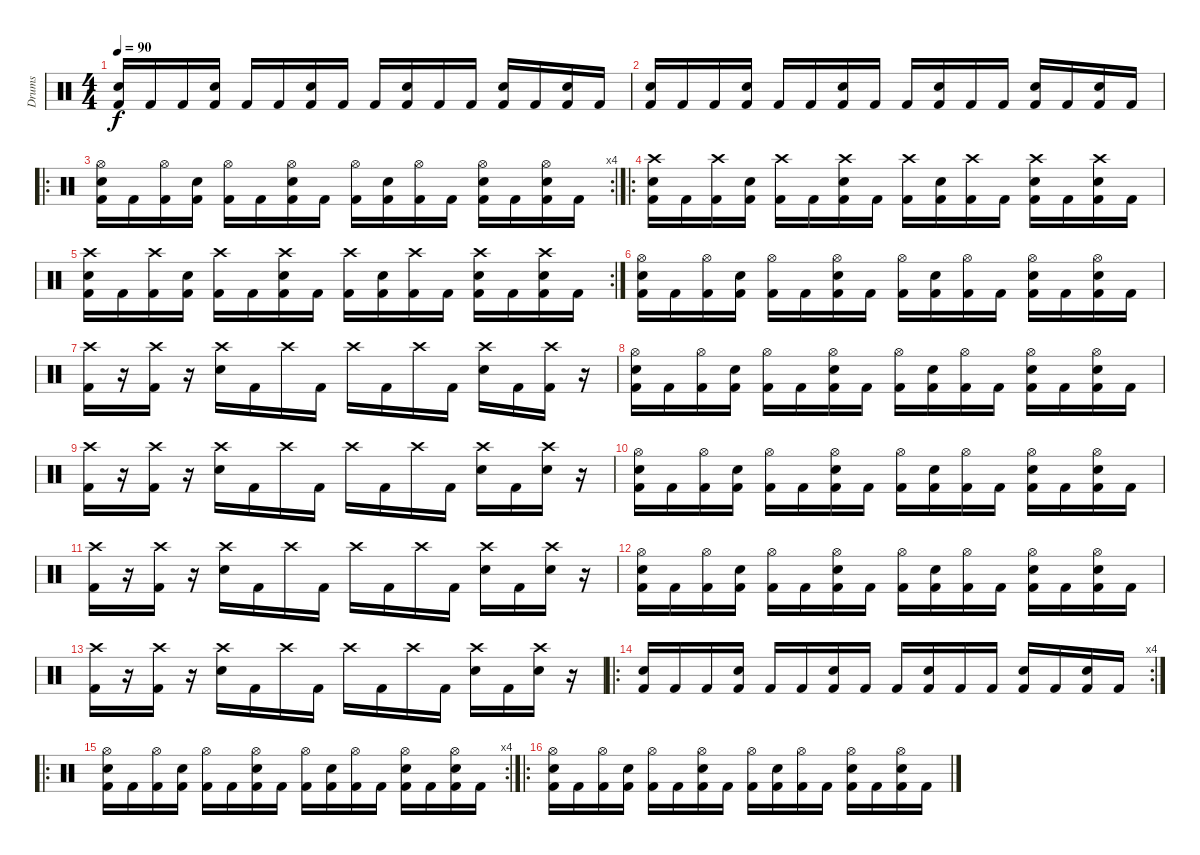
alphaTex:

\track ("Drums" "Drums") {instrument percussion}
\staff {score}
\articulation defaults
\ts (4 4)
\tempo 90
\clef neutral
\ks c
("Kick (hit) 2" "Snare (hit) 2").16{dy f} "Kick (hit) 2".16 "Kick (hit) 2".16 ("Kick (hit) 2" "Snare (hit) 2").16 "Kick (hit) 2".16 "Kick (hit) 2".16 ("Kick (hit) 2" "Snare (hit) 2").16 "Kick (hit) 2".16 "Kick (hit) 2".16 ("Kick (hit) 2" "Snare (hit) 2").16 "Kick (hit) 2".16 "Kick (hit) 2".16 ("Kick (hit) 2" "Snare (hit) 2").16 "Kick (hit) 2".16 ("Kick (hit) 2" "Snare (hit) 2").16 "Kick (hit) 2".16 |
("Kick (hit) 2" "Snare (hit) 2").16 "Kick (hit) 2".16 "Kick (hit) 2".16 ("Kick (hit) 2" "Snare (hit) 2").16 "Kick (hit) 2".16 "Kick (hit) 2".16 ("Kick (hit) 2" "Snare (hit) 2").16 "Kick (hit) 2".16 "Kick (hit) 2".16 ("Kick (hit) 2" "Snare (hit) 2").16 "Kick (hit) 2".16 "Kick (hit) 2".16 ("Kick (hit) 2" "Snare (hit) 2").16 "Kick (hit) 2".16 ("Kick (hit) 2" "Snare (hit) 2").16 "Kick (hit) 2".16 |
\ro
\rc 4
("Kick (hit) 2" "Snare (hit) 2" "Hi-Hat (open)").16 "Kick (hit) 2".16 ("Kick (hit) 2" "Hi-Hat (open)").16 ("Kick (hit) 2" "Snare (hit) 2").16 ("Kick (hit) 2" "Hi-Hat (open)").16 "Kick (hit) 2".16 ("Kick (hit) 2" "Snare (hit) 2" "Hi-Hat (open)").16 "Kick (hit) 2".16 ("Kick (hit) 2" "Hi-Hat (open)").16 ("Kick (hit) 2" "Snare (hit) 2").16 ("Kick (hit) 2" "Hi-Hat (open)").16 "Kick (hit) 2".16 ("Kick (hit) 2" "Snare (hit) 2" "Hi-Hat (open)").16 "Kick (hit) 2".16 ("Kick (hit) 2" "Snare (hit) 2" "Hi-Hat (open)").16 "Kick (hit) 2".16 |
\ro
("Kick (hit) 2" "Snare (hit) 2" "Crash high (hit)").16 "Kick (hit) 2".16 ("Kick (hit) 2" "Crash high (hit)").16 ("Kick (hit) 2" "Snare (hit) 2").16 ("Kick (hit) 2" "Crash high (hit)").16 "Kick (hit) 2".16 ("Kick (hit) 2" "Snare (hit) 2" "Crash high (hit)").16 "Kick (hit) 2".16 ("Kick (hit) 2" "Crash high (hit)").16 ("Kick (hit) 2" "Snare (hit) 2").16 ("Kick (hit) 2" "Crash high (hit)").16 "Kick (hit) 2".16 ("Kick (hit) 2" "Snare (hit) 2" "Crash high (hit)").16 "Kick (hit) 2".16 ("Kick (hit) 2" "Snare (hit) 2" "Crash high (hit)").16 "Kick (hit) 2".16 |
\rc 2
("Kick (hit) 2" "Snare (hit) 2" "Crash high (hit)").16 "Kick (hit) 2".16 ("Kick (hit) 2" "Crash high (hit)").16 ("Kick (hit) 2" "Snare (hit) 2").16 ("Kick (hit) 2" "Crash high (hit)").16 "Kick (hit) 2".16 ("Kick (hit) 2" "Snare (hit) 2" "Crash high (hit)").16 "Kick (hit) 2".16 ("Kick (hit) 2" "Crash high (hit)").16 ("Kick (hit) 2" "Snare (hit) 2").16 ("Kick (hit) 2" "Crash high (hit)").16 "Kick (hit) 2".16 ("Kick (hit) 2" "Snare (hit) 2" "Crash high (hit)").16 "Kick (hit) 2".16 ("Kick (hit) 2" "Snare (hit) 2" "Crash high (hit)").16 "Kick (hit) 2".16 |
("Kick (hit) 2" "Snare (hit) 2" "Hi-Hat (open)").16 "Kick (hit) 2".16 ("Kick (hit) 2" "Hi-Hat (open)").16 ("Kick (hit) 2" "Snare (hit) 2").16 ("Kick (hit) 2" "Hi-Hat (open)").16 "Kick (hit) 2".16 ("Kick (hit) 2" "Snare (hit) 2" "Hi-Hat (open)").16 "Kick (hit) 2".16 ("Kick (hit) 2" "Hi-Hat (open)").16 ("Kick (hit) 2" "Snare (hit) 2").16 ("Kick (hit) 2" "Hi-Hat (open)").16 "Kick (hit) 2".16 ("Kick (hit) 2" "Snare (hit) 2" "Hi-Hat (open)").16 "Kick (hit) 2".16 ("Kick (hit) 2" "Snare (hit) 2" "Hi-Hat (open)").16 "Kick (hit) 2".16 |
("Kick (hit) 2" "Crash high (hit)").16 r.16 ("Kick (hit) 2" "Crash high (hit)").16 r.16 ("Snare (hit) 2" "Crash high (hit)").16 "Kick (hit) 2".16 "Crash high (hit)".16 "Kick (hit) 2".16 "Crash high (hit)".16 "Kick (hit) 2".16 "Crash high (hit)".16 "Kick (hit) 2".16 ("Snare (hit) 2" "Crash high (hit)").16 "Kick (hit) 2".16 ("Kick (hit) 2" "Crash high (hit)").16 r.16 |
("Kick (hit) 2" "Snare (hit) 2" "Hi-Hat (open)").16 "Kick (hit) 2".16 ("Kick (hit) 2" "Hi-Hat (open)").16 ("Kick (hit) 2" "Snare (hit) 2").16 ("Kick (hit) 2" "Hi-Hat (open)").16 "Kick (hit) 2".16 ("Kick (hit) 2" "Snare (hit) 2" "Hi-Hat (open)").16 "Kick (hit) 2".16 ("Kick (hit) 2" "Hi-Hat (open)").16 ("Kick (hit) 2" "Snare (hit) 2").16 ("Kick (hit) 2" "Hi-Hat (open)").16 "Kick (hit) 2".16 ("Kick (hit) 2" "Snare (hit) 2" "Hi-Hat (open)").16 "Kick (hit) 2".16 ("Kick (hit) 2" "Snare (hit) 2" "Hi-Hat (open)").16 "Kick (hit) 2".16 |
("Kick (hit) 2" "Crash high (hit)").16 r.16 ("Kick (hit) 2" "Crash high (hit)").16 r.16 ("Snare (hit) 2" "Crash high (hit)").16 "Kick (hit) 2".16 "Crash high (hit)".16 "Kick (hit) 2".16 "Crash high (hit)".16 "Kick (hit) 2".16 "Crash high (hit)".16 "Kick (hit) 2".16 ("Snare (hit) 2" "Crash high (hit)").16 "Kick (hit) 2".16 ("Snare (hit) 2" "Crash high (hit)").16 r.16 |
("Kick (hit) 2" "Snare (hit) 2" "Hi-Hat (open)").16 "Kick (hit) 2".16 ("Kick (hit) 2" "Hi-Hat (open)").16 ("Kick (hit) 2" "Snare (hit) 2").16 ("Kick (hit) 2" "Hi-Hat (open)").16 "Kick (hit) 2".16 ("Kick (hit) 2" "Snare (hit) 2" "Hi-Hat (open)").16 "Kick (hit) 2".16 ("Kick (hit) 2" "Hi-Hat (open)").16 ("Kick (hit) 2" "Snare (hit) 2").16 ("Kick (hit) 2" "Hi-Hat (open)").16 "Kick (hit) 2".16 ("Kick (hit) 2" "Snare (hit) 2" "Hi-Hat (open)").16 "Kick (hit) 2".16 ("Kick (hit) 2" "Snare (hit) 2" "Hi-Hat (open)").16 "Kick (hit) 2".16 |
("Kick (hit) 2" "Crash high (hit)").16 r.16 ("Kick (hit) 2" "Crash high (hit)").16 r.16 ("Snare (hit) 2" "Crash high (hit)").16 "Kick (hit) 2".16 "Crash high (hit)".16 "Kick (hit) 2".16 "Crash high (hit)".16 "Kick (hit) 2".16 "Crash high (hit)".16 "Kick (hit) 2".16 ("Snare (hit) 2" "Crash high (hit)").16 "Kick (hit) 2".16 ("Snare (hit) 2" "Crash high (hit)").16 r.16 |
("Kick (hit) 2" "Snare (hit) 2" "Hi-Hat (open)").16 "Kick (hit) 2".16 ("Kick (hit) 2" "Hi-Hat (open)").16 ("Kick (hit) 2" "Snare (hit) 2").16 ("Kick (hit) 2" "Hi-Hat (open)").16 "Kick (hit) 2".16 ("Kick (hit) 2" "Snare (hit) 2" "Hi-Hat (open)").16 "Kick (hit) 2".16 ("Kick (hit) 2" "Hi-Hat (open)").16 ("Kick (hit) 2" "Snare (hit) 2").16 ("Kick (hit) 2" "Hi-Hat (open)").16 "Kick (hit) 2".16 ("Kick (hit) 2" "Snare (hit) 2" "Hi-Hat (open)").16 "Kick (hit) 2".16 ("Kick (hit) 2" "Snare (hit) 2" "Hi-Hat (open)").16 "Kick (hit) 2".16 |
("Kick (hit) 2" "Crash high (hit)").16 r.16 ("Kick (hit) 2" "Crash high (hit)").16 r.16 ("Snare (hit) 2" "Crash high (hit)").16 "Kick (hit) 2".16 "Crash high (hit)".16 "Kick (hit) 2".16 "Crash high (hit)".16 "Kick (hit) 2".16 "Crash high (hit)".16 "Kick (hit) 2".16 ("Snare (hit) 2" "Crash high (hit)").16 "Kick (hit) 2".16 ("Snare (hit) 2" "Crash high (hit)").16 r.16 |
\ro
\rc 4
("Kick (hit) 2" "Snare (hit) 2").16 "Kick (hit) 2".16 "Kick (hit) 2".16 ("Kick (hit) 2" "Snare (hit) 2").16 "Kick (hit) 2".16 "Kick (hit) 2".16 ("Kick (hit) 2" "Snare (hit) 2").16 "Kick (hit) 2".16 "Kick (hit) 2".16 ("Kick (hit) 2" "Snare (hit) 2").16 "Kick (hit) 2".16 "Kick (hit) 2".16 ("Kick (hit) 2" "Snare (hit) 2").16 "Kick (hit) 2".16 ("Kick (hit) 2" "Snare (hit) 2").16 "Kick (hit) 2".16 |
\ro
\rc 4
("Kick (hit) 2" "Snare (hit) 2" "Hi-Hat (open)").16 "Kick (hit) 2".16 ("Kick (hit) 2" "Hi-Hat (open)").16 ("Kick (hit) 2" "Snare (hit) 2").16 ("Kick (hit) 2" "Hi-Hat (open)").16 "Kick (hit) 2".16 ("Kick (hit) 2" "Snare (hit) 2" "Hi-Hat (open)").16 "Kick (hit) 2".16 ("Kick (hit) 2" "Hi-Hat (open)").16 ("Kick (hit) 2" "Snare (hit) 2").16 ("Kick (hit) 2" "Hi-Hat (open)").16 "Kick (hit) 2".16 ("Kick (hit) 2" "Snare (hit) 2" "Hi-Hat (open)").16 "Kick (hit) 2".16 ("Kick (hit) 2" "Snare (hit) 2" "Hi-Hat (open)").16 "Kick (hit) 2".16 |
\ro
("Kick (hit) 2" "Snare (hit) 2" "Hi-Hat (open)").16 "Kick (hit) 2".16 ("Kick (hit) 2" "Hi-Hat (open)").16 ("Kick (hit) 2" "Snare (hit) 2").16 ("Kick (hit) 2" "Hi-Hat (open)").16 "Kick (hit) 2".16 ("Kick (hit) 2" "Snare (hit) 2" "Hi-Hat (open)").16 "Kick (hit) 2".16 ("Kick (hit) 2" "Hi-Hat (open)").16 ("Kick (hit) 2" "Snare (hit) 2").16 ("Kick (hit) 2" "Hi-Hat (open)").16 "Kick (hit) 2".16 ("Kick (hit) 2" "Snare (hit) 2" "Hi-Hat (open)").16 "Kick (hit) 2".16 ("Kick (hit) 2" "Snare (hit) 2" "Hi-Hat (open)").16 "Kick (hit) 2".16
